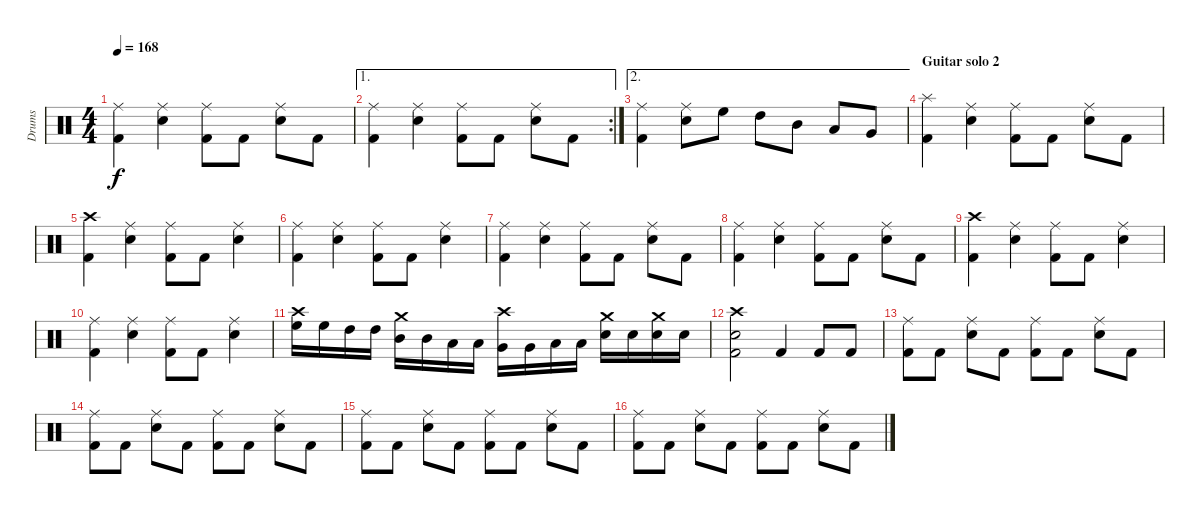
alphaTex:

\track ("Drums" "Drums") {instrument percussion}
\staff {score}
\articulation defaults
\ts (4 4)
\tempo 168
\clef neutral
\ks c
("Ride (middle)" "Kick (hit) 2").4{dy f} ("Ride (middle)" "Electric Snare (hit)").4 ("Ride (middle)" "Kick (hit) 2").8 "Kick (hit) 2".8 ("Ride (middle)" "Electric Snare (hit)").8 "Kick (hit) 2".8 |
\ae 1
\rc 2
("Ride (middle)" "Kick (hit) 2").4 ("Ride (middle)" "Electric Snare (hit)").4 ("Ride (middle)" "Kick (hit) 2").8 "Kick (hit) 2".8 ("Ride (middle)" "Electric Snare (hit)").8 "Kick (hit) 2".8 |
\ae 2
("Ride (middle)" "Kick (hit) 2").4 ("Ride (middle)" "Electric Snare (hit)").8 "High Floor Tom (hit)".8 "High Tom (hit)".8 "Mid Tom (hit)".8 "Low Tom (hit)".8 "Very Low Tom (hit)".8 |
\section ("" "Guitar solo 2")
("Splash (hit)" "Kick (hit) 2").4 ("Ride (middle)" "Electric Snare (hit)").4 ("Ride (middle)" "Kick (hit) 2").8 "Kick (hit) 2".8 ("Ride (middle)" "Electric Snare (hit)").8 "Kick (hit) 2".8 |
("Crash high (hit)" "Kick (hit) 2").4 ("Ride (middle)" "Electric Snare (hit)").4 ("Ride (middle)" "Kick (hit) 2").8 "Kick (hit) 2".8 ("Ride (middle)" "Electric Snare (hit)").4 |
("Ride (middle)" "Kick (hit) 2").4 ("Ride (middle)" "Electric Snare (hit)").4 ("Ride (middle)" "Kick (hit) 2").8 "Kick (hit) 2".8 ("Ride (middle)" "Electric Snare (hit)").4 |
("Ride (middle)" "Kick (hit) 2").4 ("Ride (middle)" "Electric Snare (hit)").4 ("Ride (middle)" "Kick (hit) 2").8 "Kick (hit) 2".8 ("Ride (middle)" "Electric Snare (hit)").8 "Kick (hit) 2".8 |
("Ride (middle)" "Kick (hit) 2").4 ("Ride (middle)" "Electric Snare (hit)").4 ("Ride (middle)" "Kick (hit) 2").8 "Kick (hit) 2".8 ("Ride (middle)" "Electric Snare (hit)").8 "Kick (hit) 2".8 |
("Crash high (hit)" "Kick (hit) 2").4 ("Ride (middle)" "Electric Snare (hit)").4 ("Ride (middle)" "Kick (hit) 2").8 "Kick (hit) 2".8 ("Ride (middle)" "Electric Snare (hit)").4 |
("Ride (middle)" "Kick (hit) 2").4 ("Ride (middle)" "Electric Snare (hit)").4 ("Ride (middle)" "Kick (hit) 2").8 "Kick (hit) 2".8 ("Ride (middle)" "Electric Snare (hit)").4 |
("Crash high (hit)" "High Floor Tom (hit)").16 "High Floor Tom (hit)".16 "High Tom (hit)".16 "High Tom (hit)".16 ("Crash medium (hit)" "Mid Tom (hit)").16 "Mid Tom (hit)".16 "Low Tom (hit)".16 "Low Tom (hit)".16 ("Crash high (hit)" "Very Low Tom (hit)").16 "Very Low Tom (hit)".16 "Low Floor Tom (hit)".16 "Low Floor Tom (hit)".16 ("Crash medium (hit)" "Electric Snare (hit)").16 "Electric Snare (hit)".16 ("Crash medium (hit)" "Electric Snare (hit)").16 "Electric Snare (hit)".16 |
("Crash high (hit)" "Electric Snare (hit)" "Kick (hit) 2").2 "Kick (hit) 2".4 "Kick (hit) 2".8 "Kick (hit) 2".8 |
("Ride (middle)" "Kick (hit) 2").8 "Kick (hit) 2".8 ("Ride (middle)" "Electric Snare (hit)").8 "Kick (hit) 2".8 ("Ride (middle)" "Kick (hit) 2").8 "Kick (hit) 2".8 ("Ride (middle)" "Electric Snare (hit)").8 "Kick (hit) 2".8 |
("Ride (middle)" "Kick (hit) 2").8 "Kick (hit) 2".8 ("Ride (middle)" "Electric Snare (hit)").8 "Kick (hit) 2".8 ("Ride (middle)" "Kick (hit) 2").8 "Kick (hit) 2".8 ("Ride (middle)" "Electric Snare (hit)").8 "Kick (hit) 2".8 |
("Ride (middle)" "Kick (hit) 2").8 "Kick (hit) 2".8 ("Ride (middle)" "Electric Snare (hit)").8 "Kick (hit) 2".8 ("Ride (middle)" "Kick (hit) 2").8 "Kick (hit) 2".8 ("Ride (middle)" "Electric Snare (hit)").8 "Kick (hit) 2".8 |
("Ride (middle)" "Kick (hit) 2").8 "Kick (hit) 2".8 ("Ride (middle)" "Electric Snare (hit)").8 "Kick (hit) 2".8 ("Ride (middle)" "Kick (hit) 2").8 "Kick (hit) 2".8 ("Ride (middle)" "Electric Snare (hit)").8 "Kick (hit) 2".8
